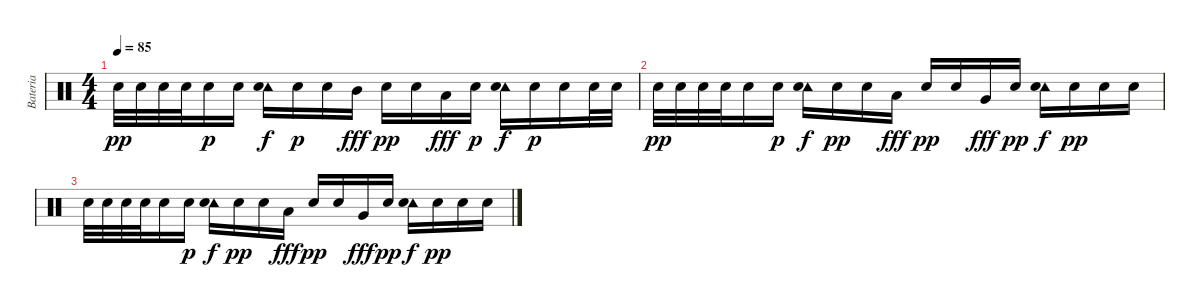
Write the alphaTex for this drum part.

\track ("Bateria" "Bateria") {instrument percussion}
\staff {score}
\articulation defaults
\ts (4 4)
\tempo 85
\clef neutral
\ks c "Snare (hit) 2".32{dy pp volume 10} "Snare (hit) 2".32 "Snare (hit) 2".32 "Snare (hit) 2".32 "Snare (hit) 2".16{dy p} "Snare (hit) 2".16
("Tambourine (hit)" "Snare (hit) 2").16{dy f} "Snare (hit) 2".16{dy p} "Snare (hit) 2".16 "Mid Tom (hit)".16{dy fff} "Snare (hit) 2".16{dy pp} "Snare (hit) 2".16 "Low Tom (hit)".16{dy fff} "Snare (hit) 2".16{dy p} ("Tambourine (hit)" "Snare (hit) 2").16{dy f} "Snare (hit) 2".16{dy p} "Snare (hit) 2".16 "Snare (hit) 2".32 "Snare (hit) 2".32 |
"Snare (hit) 2".32{dy pp volume 9} "Snare (hit) 2".32 "Snare (hit) 2".32 "Snare (hit) 2".32 "Snare (hit) 2".16 "Snare (hit) 2".16{dy p} ("Tambourine (hit)" "Snare (hit) 2").16{dy f} "Snare (hit) 2".16{dy pp} "Snare (hit) 2".16 "Low Tom (hit)".16{dy fff} "Snare (hit) 2".16{dy pp} "Snare (hit) 2".16 "Very Low Tom (hit)".16{dy fff} "Snare (hit) 2".16{dy pp} ("Tambourine (hit)" "Snare (hit) 2").16{dy f} "Snare (hit) 2".16{dy pp} "Snare (hit) 2".16 "Snare (hit) 2".16 |
"Snare (hit) 2".32{volume 7} "Snare (hit) 2".32 "Snare (hit) 2".32 "Snare (hit) 2".32 "Snare (hit) 2".16 "Snare (hit) 2".16{dy p} ("Tambourine (hit)" "Snare (hit) 2").16{dy f} "Snare (hit) 2".16{dy pp} "Snare (hit) 2".16 "Low Tom (hit)".16{dy fff} "Snare (hit) 2".16{dy pp} "Snare (hit) 2".16 "Very Low Tom (hit)".16{dy fff} "Snare (hit) 2".16{dy pp} ("Tambourine (hit)" "Snare (hit) 2").16{dy f} "Snare (hit) 2".16{dy pp} "Snare (hit) 2".16 "Snare (hit) 2".16
